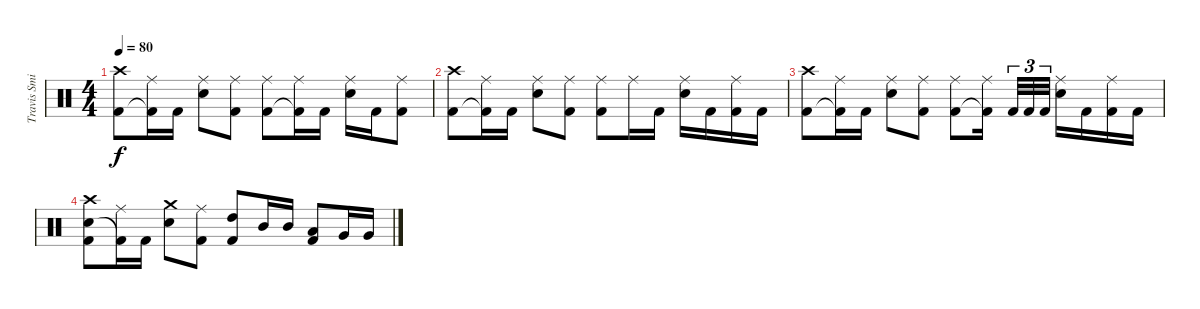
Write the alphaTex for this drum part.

\track ("Travis Smith" "Travis Smi") {instrument percussion}
\staff {score}
\articulation defaults
\ts (4 4)
\tempo 80
\clef neutral
\ks c
("Crash high (hit)" "Kick (hit) 2").8{dy f} ("Ride (middle)" "Kick (hit) 2"{t}).16 "Kick (hit) 2".16 ("Ride (middle)" "Snare (hit) 2").8 ("Ride (middle)" "Kick (hit) 2").8 ("Ride (middle)" "Kick (hit) 2").8 ("Ride (middle)" "Kick (hit) 2"{t}).16 "Kick (hit) 2".16 ("Ride (middle)" "Snare (hit) 2").16 "Kick (hit) 2".16 ("Ride (middle)" "Kick (hit) 2").8 |
("Crash high (hit)" "Kick (hit) 2").8 ("Ride (middle)" "Kick (hit) 2"{t}).16 "Kick (hit) 2".16 ("Ride (middle)" "Snare (hit) 2").8 ("Ride (middle)" "Kick (hit) 2").8 ("Ride (middle)" "Kick (hit) 2").8 "Ride (middle)".16 "Kick (hit) 2".16 ("Ride (middle)" "Snare (hit) 2").16 "Kick (hit) 2".16 ("Ride (middle)" "Kick (hit) 2").16 "Kick (hit) 2".16 |
("Crash high (hit)" "Kick (hit) 2").8 ("Ride (middle)" "Kick (hit) 2"{t}).16 "Kick (hit) 2".16 ("Ride (middle)" "Snare (hit) 2").8 ("Ride (middle)" "Kick (hit) 2").8 ("Ride (middle)" "Kick (hit) 2").8 ("Ride (middle)" "Kick (hit) 2"{t}).16{beam splitsecondary} "Kick (hit) 2".32{tu (3 2)} "Kick (hit) 2".32{tu (3 2)} "Kick (hit) 2".32{tu (3 2)} ("Ride (middle)" "Snare (hit) 2").16 "Kick (hit) 2".16 ("Ride (middle)" "Kick (hit) 2").16 "Kick (hit) 2".16 |
("Crash high (hit)" "Snare (hit) 2" "Kick (hit) 2").8 ("Ride (middle)" "Kick (hit) 2"{t}).16 "Kick (hit) 2".16 ("Crash medium (hit)" "Snare (hit) 2").8 ("Ride (middle)" "Kick (hit) 2").8 ("High Tom (hit)" "Kick (hit) 2").8 "Mid Tom (hit)".16 "Mid Tom (hit)".16 ("Low Tom (hit)" "Kick (hit) 2").8 "Very Low Tom (hit)".16 "Very Low Tom (hit)".16
